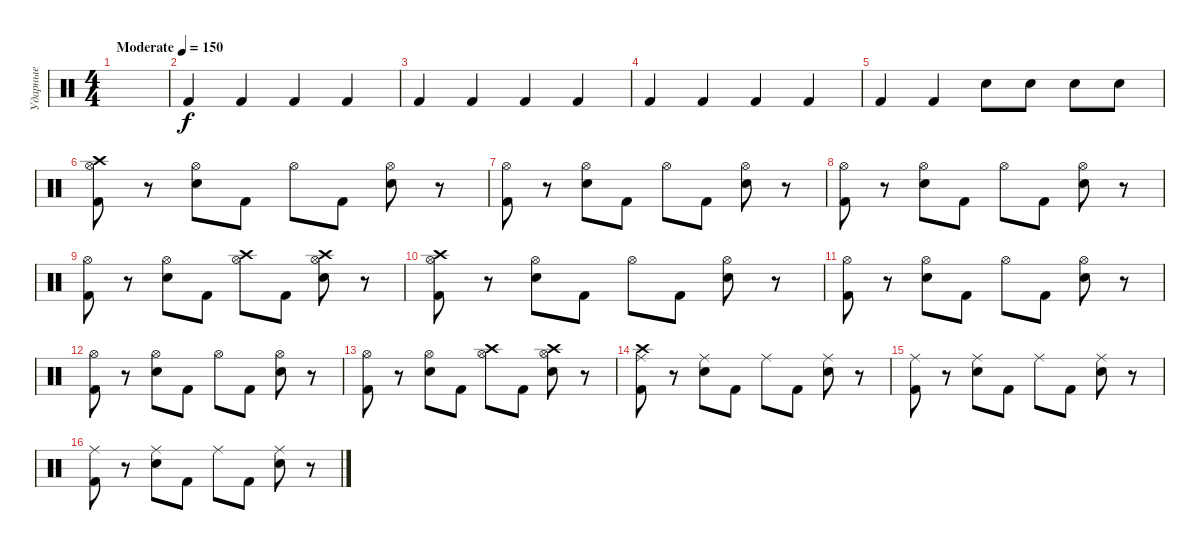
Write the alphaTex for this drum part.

\track ("Ударные" "Ударные") {instrument percussion}
\staff {score}
\articulation defaults
\ts (4 4)
\tempo (150 "Moderate")
\clef neutral
\ks c
|
"Kick (hit) 2".4 "Kick (hit) 2".4 "Kick (hit) 2".4 "Kick (hit) 2".4 |
"Kick (hit) 2".4 "Kick (hit) 2".4 "Kick (hit) 2".4 "Kick (hit) 2".4 |
"Kick (hit) 2".4 "Kick (hit) 2".4 "Kick (hit) 2".4 "Kick (hit) 2".4 |
"Kick (hit) 2".4 "Kick (hit) 2".4 "Snare (hit) 2".8 "Snare (hit) 2".8 "Snare (hit) 2".8 "Snare (hit) 2".8 |
("Hi-Hat (open)" "Kick (hit) 2" "Crash high (hit)").8 r.8 ("Hi-Hat (open)" "Snare (hit) 2").8 "Kick (hit) 2".8 "Hi-Hat (open)".8 "Kick (hit) 2".8 ("Hi-Hat (open)" "Snare (hit) 2").8 r.8 |
("Hi-Hat (open)" "Kick (hit) 2").8 r.8 ("Hi-Hat (open)" "Snare (hit) 2").8 "Kick (hit) 2".8 "Hi-Hat (open)".8 "Kick (hit) 2".8 ("Hi-Hat (open)" "Snare (hit) 2").8 r.8 |
("Hi-Hat (open)" "Kick (hit) 2").8 r.8 ("Hi-Hat (open)" "Snare (hit) 2").8 "Kick (hit) 2".8 "Hi-Hat (open)".8 "Kick (hit) 2".8 ("Hi-Hat (open)" "Snare (hit) 2").8 r.8 |
("Hi-Hat (open)" "Kick (hit) 2").8 r.8 ("Hi-Hat (open)" "Snare (hit) 2").8 "Kick (hit) 2".8 ("Hi-Hat (open)" "Crash high (hit)").8 "Kick (hit) 2".8 ("Hi-Hat (open)" "Snare (hit) 2" "Crash high (hit)").8 r.8 |
("Hi-Hat (open)" "Kick (hit) 2" "Crash high (hit)").8 r.8 ("Hi-Hat (open)" "Snare (hit) 2").8 "Kick (hit) 2".8 "Hi-Hat (open)".8 "Kick (hit) 2".8 ("Hi-Hat (open)" "Snare (hit) 2").8 r.8 |
("Hi-Hat (open)" "Kick (hit) 2").8 r.8 ("Hi-Hat (open)" "Snare (hit) 2").8 "Kick (hit) 2".8 "Hi-Hat (open)".8 "Kick (hit) 2".8 ("Hi-Hat (open)" "Snare (hit) 2").8 r.8 |
("Hi-Hat (open)" "Kick (hit) 2").8 r.8 ("Hi-Hat (open)" "Snare (hit) 2").8 "Kick (hit) 2".8 "Hi-Hat (open)".8 "Kick (hit) 2".8 ("Hi-Hat (open)" "Snare (hit) 2").8 r.8 |
("Hi-Hat (open)" "Kick (hit) 2").8 r.8 ("Hi-Hat (open)" "Snare (hit) 2").8 "Kick (hit) 2".8 ("Hi-Hat (open)" "Crash high (hit)").8 "Kick (hit) 2".8 ("Hi-Hat (open)" "Snare (hit) 2" "Crash high (hit)").8 r.8 |
("Ride (middle)" "Kick (hit) 2" "Crash high (hit)").8 r.8 ("Ride (middle)" "Snare (hit) 2").8 "Kick (hit) 2".8 "Ride (middle)".8 "Kick (hit) 2".8 ("Ride (middle)" "Snare (hit) 2").8 r.8 |
("Ride (middle)" "Kick (hit) 2").8 r.8 ("Ride (middle)" "Snare (hit) 2").8 "Kick (hit) 2".8 "Ride (middle)".8 "Kick (hit) 2".8 ("Ride (middle)" "Snare (hit) 2").8 r.8 |
("Ride (middle)" "Kick (hit) 2").8 r.8 ("Ride (middle)" "Snare (hit) 2").8 "Kick (hit) 2".8 "Ride (middle)".8 "Kick (hit) 2".8 ("Ride (middle)" "Snare (hit) 2").8 r.8
